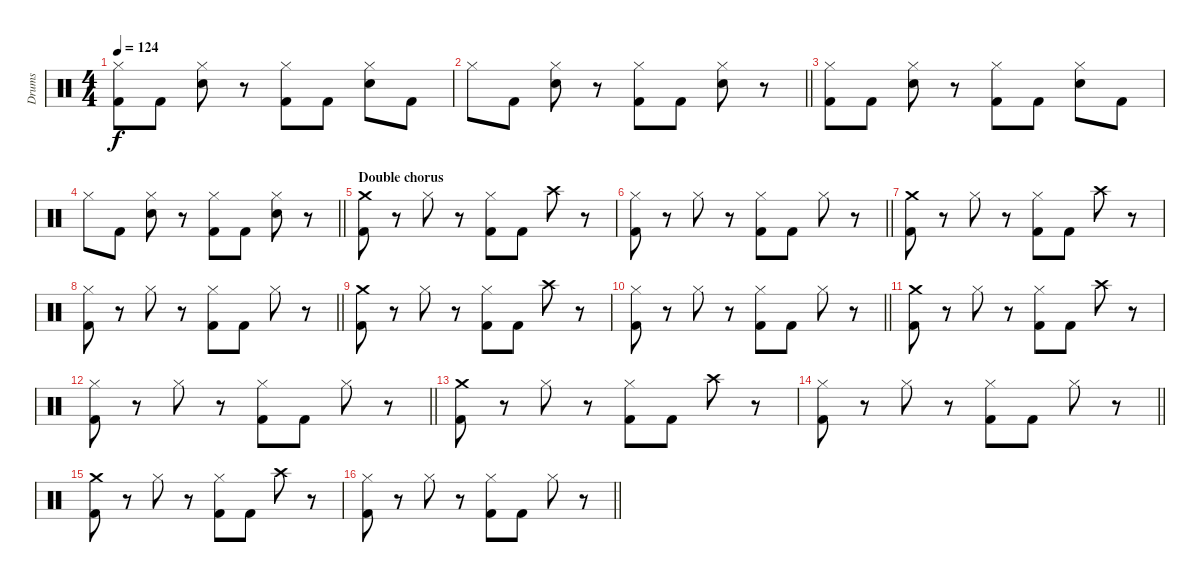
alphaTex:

\track ("Drums" "Drums") {instrument percussion}
\staff {score}
\articulation defaults
\ts (4 4)
\tempo 124
\clef neutral
\ks c
("Hi-Hat (closed)" "Kick (hit) 2").8{dy f} "Kick (hit) 2".8 ("Hi-Hat (closed)" "Snare (hit) 2").8 r.8 ("Hi-Hat (closed)" "Kick (hit) 2").8 "Kick (hit) 2".8 ("Hi-Hat (closed)" "Snare (hit) 2").8 "Kick (hit) 2".8 |
\barLineRight lightlight "Hi-Hat (closed)".8 "Kick (hit) 2".8
("Hi-Hat (closed)" "Snare (hit) 2").8 r.8 ("Hi-Hat (closed)" "Kick (hit) 2").8 "Kick (hit) 2".8 ("Hi-Hat (closed)" "Snare (hit) 2").8 r.8 |
("Hi-Hat (closed)" "Kick (hit) 2").8 "Kick (hit) 2".8 ("Hi-Hat (closed)" "Snare (hit) 2").8 r.8 ("Hi-Hat (closed)" "Kick (hit) 2").8 "Kick (hit) 2".8 ("Hi-Hat (closed)" "Snare (hit) 2").8 "Kick (hit) 2".8 |
\barLineRight lightlight "Hi-Hat (closed)".8 "Kick (hit) 2".8
("Hi-Hat (closed)" "Snare (hit) 2").8 r.8 ("Hi-Hat (closed)" "Kick (hit) 2").8 "Kick (hit) 2".8 ("Hi-Hat (closed)" "Snare (hit) 2").8 r.8 |
\section ("" "Double chorus")
("Crash medium (hit)" "Kick (hit) 2").8 r.8 "Hi-Hat (closed)".8 r.8 ("Hi-Hat (closed)" "Kick (hit) 2").8 "Kick (hit) 2".8 "Crash high (hit)".8 r.8 |
\barLineRight lightlight
("Hi-Hat (closed)" "Kick (hit) 2").8 r.8 "Hi-Hat (closed)".8 r.8 ("Hi-Hat (closed)" "Kick (hit) 2").8 "Kick (hit) 2".8 "Hi-Hat (closed)".8 r.8 |
("Crash medium (hit)" "Kick (hit) 2").8 r.8 "Hi-Hat (closed)".8 r.8 ("Hi-Hat (closed)" "Kick (hit) 2").8 "Kick (hit) 2".8 "Crash high (hit)".8 r.8 |
\barLineRight lightlight
("Hi-Hat (closed)" "Kick (hit) 2").8 r.8 "Hi-Hat (closed)".8 r.8 ("Hi-Hat (closed)" "Kick (hit) 2").8 "Kick (hit) 2".8 "Hi-Hat (closed)".8 r.8 |
("Crash medium (hit)" "Kick (hit) 2").8 r.8 "Hi-Hat (closed)".8 r.8 ("Hi-Hat (closed)" "Kick (hit) 2").8 "Kick (hit) 2".8 "Crash high (hit)".8 r.8 |
\barLineRight lightlight
("Hi-Hat (closed)" "Kick (hit) 2").8 r.8 "Hi-Hat (closed)".8 r.8 ("Hi-Hat (closed)" "Kick (hit) 2").8 "Kick (hit) 2".8 "Hi-Hat (closed)".8 r.8 |
("Crash medium (hit)" "Kick (hit) 2").8 r.8 "Hi-Hat (closed)".8 r.8 ("Hi-Hat (closed)" "Kick (hit) 2").8 "Kick (hit) 2".8 "Crash high (hit)".8 r.8 |
\barLineRight lightlight
("Hi-Hat (closed)" "Kick (hit) 2").8 r.8 "Hi-Hat (closed)".8 r.8 ("Hi-Hat (closed)" "Kick (hit) 2").8 "Kick (hit) 2".8 "Hi-Hat (closed)".8 r.8 |
("Crash medium (hit)" "Kick (hit) 2").8 r.8 "Hi-Hat (closed)".8 r.8 ("Hi-Hat (closed)" "Kick (hit) 2").8 "Kick (hit) 2".8 "Crash high (hit)".8 r.8 |
\barLineRight lightlight
("Hi-Hat (closed)" "Kick (hit) 2").8 r.8 "Hi-Hat (closed)".8 r.8 ("Hi-Hat (closed)" "Kick (hit) 2").8 "Kick (hit) 2".8 "Hi-Hat (closed)".8 r.8 |
("Crash medium (hit)" "Kick (hit) 2").8 r.8 "Hi-Hat (closed)".8 r.8 ("Hi-Hat (closed)" "Kick (hit) 2").8 "Kick (hit) 2".8 "Crash high (hit)".8 r.8 |
\barLineRight lightlight
("Hi-Hat (closed)" "Kick (hit) 2").8 r.8 "Hi-Hat (closed)".8 r.8 ("Hi-Hat (closed)" "Kick (hit) 2").8 "Kick (hit) 2".8 "Hi-Hat (closed)".8 r.8
